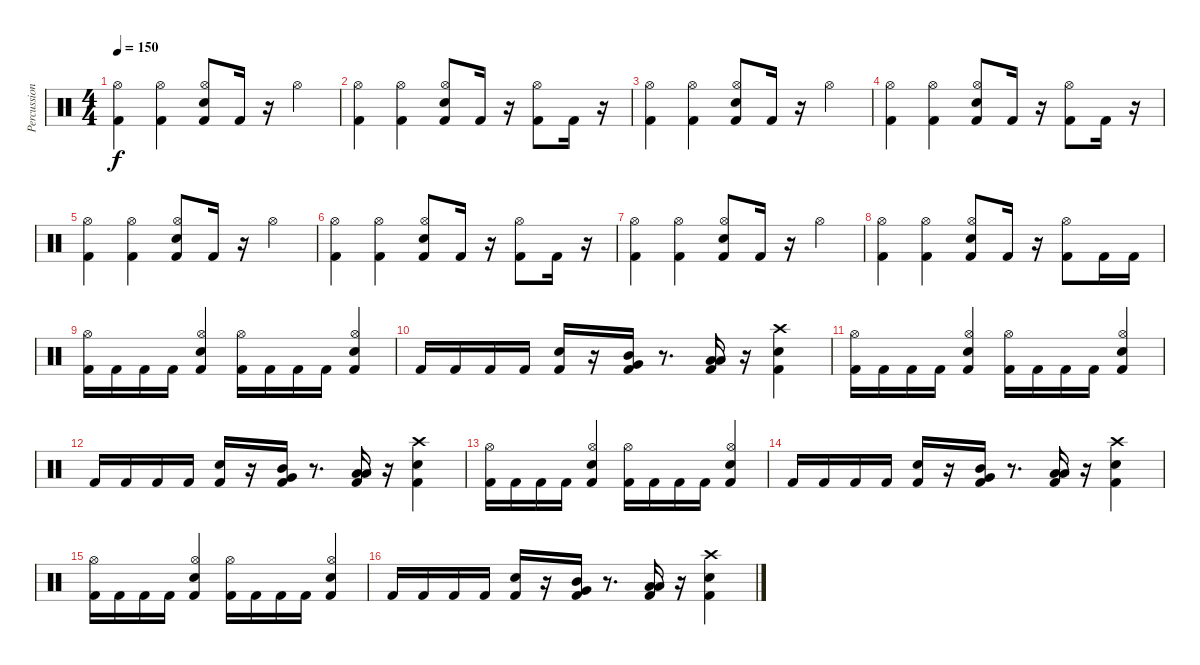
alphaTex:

\track ("Percussion" "Percussion") {instrument percussion}
\staff {score}
\articulation defaults
\ts (4 4)
\tempo 150
\clef neutral
\ks c
("Kick (hit) 2" "Hi-Hat (open)").4{dy f} ("Kick (hit) 2" "Hi-Hat (open)").4 ("Kick (hit) 2" "Electric Snare (hit)" "Hi-Hat (open)").8 "Kick (hit) 2".16 r.16 "Hi-Hat (open)".4 |
("Kick (hit) 2" "Hi-Hat (open)").4 ("Kick (hit) 2" "Hi-Hat (open)").4 ("Kick (hit) 2" "Electric Snare (hit)" "Hi-Hat (open)").8 "Kick (hit) 2".16 r.16 ("Kick (hit) 2" "Hi-Hat (open)").8 "Kick (hit) 2".16 r.16 |
("Kick (hit) 2" "Hi-Hat (open)").4 ("Kick (hit) 2" "Hi-Hat (open)").4 ("Kick (hit) 2" "Electric Snare (hit)" "Hi-Hat (open)").8 "Kick (hit) 2".16 r.16 "Hi-Hat (open)".4 |
("Kick (hit) 2" "Hi-Hat (open)").4 ("Kick (hit) 2" "Hi-Hat (open)").4 ("Kick (hit) 2" "Electric Snare (hit)" "Hi-Hat (open)").8 "Kick (hit) 2".16 r.16 ("Kick (hit) 2" "Hi-Hat (open)").8 "Kick (hit) 2".16 r.16 |
("Kick (hit) 2" "Hi-Hat (open)").4 ("Kick (hit) 2" "Hi-Hat (open)").4 ("Kick (hit) 2" "Electric Snare (hit)" "Hi-Hat (open)").8 "Kick (hit) 2".16 r.16 "Hi-Hat (open)".4 |
("Kick (hit) 2" "Hi-Hat (open)").4 ("Kick (hit) 2" "Hi-Hat (open)").4 ("Kick (hit) 2" "Electric Snare (hit)" "Hi-Hat (open)").8 "Kick (hit) 2".16 r.16 ("Kick (hit) 2" "Hi-Hat (open)").8 "Kick (hit) 2".16 r.16 |
("Kick (hit) 2" "Hi-Hat (open)").4 ("Kick (hit) 2" "Hi-Hat (open)").4 ("Kick (hit) 2" "Electric Snare (hit)" "Hi-Hat (open)").8 "Kick (hit) 2".16 r.16 "Hi-Hat (open)".4 |
("Kick (hit) 2" "Hi-Hat (open)").4 ("Kick (hit) 2" "Hi-Hat (open)").4 ("Kick (hit) 2" "Electric Snare (hit)" "Hi-Hat (open)").8 "Kick (hit) 2".16 r.16 ("Kick (hit) 2" "Hi-Hat (open)").8 "Kick (hit) 2".16 "Kick (hit) 2".16 |
("Kick (hit) 2" "Hi-Hat (open)").16 "Kick (hit) 2".16 "Kick (hit) 2".16 "Kick (hit) 2".16 ("Kick (hit) 2" "Electric Snare (hit)" "Hi-Hat (open)").4 ("Kick (hit) 2" "Hi-Hat (open)").16 "Kick (hit) 2".16 "Kick (hit) 2".16 "Kick (hit) 2".16 ("Kick (hit) 2" "Electric Snare (hit)" "Hi-Hat (open)").4 |
"Kick (hit) 2".16 "Kick (hit) 2".16 "Kick (hit) 2".16 "Kick (hit) 2".16 ("Kick (hit) 2" "Electric Snare (hit)").16 r.16 ("Kick (hit) 2" "Very Low Tom (hit)" "Mid Tom (hit)").16 r.8{d} ("Kick (hit) 2" "Low Floor Tom (hit)" "Low Tom (hit)").16 r.16 ("Kick (hit) 2" "Electric Snare (hit)" "Crash high (hit)").4 |
("Kick (hit) 2" "Hi-Hat (open)").16 "Kick (hit) 2".16 "Kick (hit) 2".16 "Kick (hit) 2".16 ("Kick (hit) 2" "Electric Snare (hit)" "Hi-Hat (open)").4 ("Kick (hit) 2" "Hi-Hat (open)").16 "Kick (hit) 2".16 "Kick (hit) 2".16 "Kick (hit) 2".16 ("Kick (hit) 2" "Electric Snare (hit)" "Hi-Hat (open)").4 |
"Kick (hit) 2".16 "Kick (hit) 2".16 "Kick (hit) 2".16 "Kick (hit) 2".16 ("Kick (hit) 2" "Electric Snare (hit)").16 r.16 ("Kick (hit) 2" "Very Low Tom (hit)" "Mid Tom (hit)").16 r.8{d} ("Kick (hit) 2" "Low Floor Tom (hit)" "Low Tom (hit)").16 r.16 ("Kick (hit) 2" "Electric Snare (hit)" "Crash high (hit)").4 |
("Kick (hit) 2" "Hi-Hat (open)").16 "Kick (hit) 2".16 "Kick (hit) 2".16 "Kick (hit) 2".16 ("Kick (hit) 2" "Electric Snare (hit)" "Hi-Hat (open)").4 ("Kick (hit) 2" "Hi-Hat (open)").16 "Kick (hit) 2".16 "Kick (hit) 2".16 "Kick (hit) 2".16 ("Kick (hit) 2" "Electric Snare (hit)" "Hi-Hat (open)").4 |
"Kick (hit) 2".16 "Kick (hit) 2".16 "Kick (hit) 2".16 "Kick (hit) 2".16 ("Kick (hit) 2" "Electric Snare (hit)").16 r.16 ("Kick (hit) 2" "Very Low Tom (hit)" "Mid Tom (hit)").16 r.8{d} ("Kick (hit) 2" "Low Floor Tom (hit)" "Low Tom (hit)").16 r.16 ("Kick (hit) 2" "Electric Snare (hit)" "Crash high (hit)").4 |
("Kick (hit) 2" "Hi-Hat (open)").16 "Kick (hit) 2".16 "Kick (hit) 2".16 "Kick (hit) 2".16 ("Kick (hit) 2" "Electric Snare (hit)" "Hi-Hat (open)").4 ("Kick (hit) 2" "Hi-Hat (open)").16 "Kick (hit) 2".16 "Kick (hit) 2".16 "Kick (hit) 2".16 ("Kick (hit) 2" "Electric Snare (hit)" "Hi-Hat (open)").4 |
"Kick (hit) 2".16 "Kick (hit) 2".16 "Kick (hit) 2".16 "Kick (hit) 2".16 ("Kick (hit) 2" "Electric Snare (hit)").16 r.16 ("Kick (hit) 2" "Very Low Tom (hit)" "Mid Tom (hit)").16 r.8{d} ("Kick (hit) 2" "Low Floor Tom (hit)" "Low Tom (hit)").16 r.16 ("Kick (hit) 2" "Electric Snare (hit)" "Crash high (hit)").4
